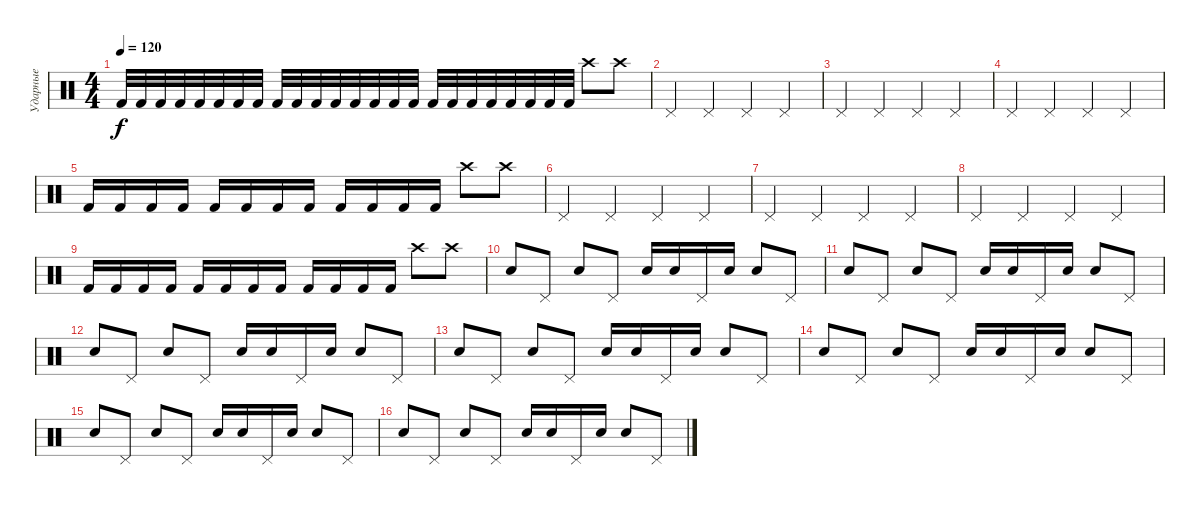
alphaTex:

\track ("Ударные" "Ударные") {instrument percussion}
\staff {score}
\articulation defaults
\ts (4 4)
\tempo 120
\clef neutral
\ks c "Kick (hit) 2".32{dy f} "Kick (hit) 2".32 "Kick (hit) 2".32 "Kick (hit) 2".32 "Kick (hit) 2".32 "Kick (hit) 2".32 "Kick (hit) 2".32 "Kick (hit) 2".32 "Kick (hit) 2".32 "Kick (hit) 2".32 "Kick (hit) 2".32 "Kick (hit) 2".32 "Kick (hit) 2".32 "Kick (hit) 2".32 "Kick (hit) 2".32 "Kick (hit) 2".32 "Kick (hit) 2".32 "Kick (hit) 2".32 "Kick (hit) 2".32 "Kick (hit) 2".32 "Kick (hit) 2".32 "Kick (hit) 2".32 "Kick (hit) 2".32 "Kick (hit) 2".32 "Crash high (hit)".8 "Crash high (hit)".8
|
"Pedal Hi-Hat (hit)".4 "Pedal Hi-Hat (hit)".4 "Pedal Hi-Hat (hit)".4 "Pedal Hi-Hat (hit)".4 |
"Pedal Hi-Hat (hit)".4 "Pedal Hi-Hat (hit)".4 "Pedal Hi-Hat (hit)".4 "Pedal Hi-Hat (hit)".4 |
"Pedal Hi-Hat (hit)".4 "Pedal Hi-Hat (hit)".4 "Pedal Hi-Hat (hit)".4 "Pedal Hi-Hat (hit)".4 |
"Kick (hit) 2".16 "Kick (hit) 2".16 "Kick (hit) 2".16 "Kick (hit) 2".16 "Kick (hit) 2".16 "Kick (hit) 2".16 "Kick (hit) 2".16 "Kick (hit) 2".16 "Kick (hit) 2".16 "Kick (hit) 2".16 "Kick (hit) 2".16 "Kick (hit) 2".16 "Crash high (hit)".8 "Crash high (hit)".8 |
"Pedal Hi-Hat (hit)".4 "Pedal Hi-Hat (hit)".4 "Pedal Hi-Hat (hit)".4 "Pedal Hi-Hat (hit)".4 |
"Pedal Hi-Hat (hit)".4 "Pedal Hi-Hat (hit)".4 "Pedal Hi-Hat (hit)".4 "Pedal Hi-Hat (hit)".4 |
"Pedal Hi-Hat (hit)".4 "Pedal Hi-Hat (hit)".4 "Pedal Hi-Hat (hit)".4 "Pedal Hi-Hat (hit)".4 |
"Kick (hit) 2".16 "Kick (hit) 2".16 "Kick (hit) 2".16 "Kick (hit) 2".16 "Kick (hit) 2".16 "Kick (hit) 2".16 "Kick (hit) 2".16 "Kick (hit) 2".16 "Kick (hit) 2".16 "Kick (hit) 2".16 "Kick (hit) 2".16 "Kick (hit) 2".16 "Crash high (hit)".8 "Crash high (hit)".8 |
"Snare (hit) 2".8 "Pedal Hi-Hat (hit)".8 "Snare (hit) 2".8 "Pedal Hi-Hat (hit)".8 "Snare (hit) 2".16 "Snare (hit) 2".16 "Pedal Hi-Hat (hit)".16 "Snare (hit) 2".16 "Snare (hit) 2".8 "Pedal Hi-Hat (hit)".8 |
"Snare (hit) 2".8 "Pedal Hi-Hat (hit)".8 "Snare (hit) 2".8 "Pedal Hi-Hat (hit)".8 "Snare (hit) 2".16 "Snare (hit) 2".16 "Pedal Hi-Hat (hit)".16 "Snare (hit) 2".16 "Snare (hit) 2".8 "Pedal Hi-Hat (hit)".8 |
"Snare (hit) 2".8 "Pedal Hi-Hat (hit)".8 "Snare (hit) 2".8 "Pedal Hi-Hat (hit)".8 "Snare (hit) 2".16 "Snare (hit) 2".16 "Pedal Hi-Hat (hit)".16 "Snare (hit) 2".16 "Snare (hit) 2".8 "Pedal Hi-Hat (hit)".8 |
"Snare (hit) 2".8 "Pedal Hi-Hat (hit)".8 "Snare (hit) 2".8 "Pedal Hi-Hat (hit)".8 "Snare (hit) 2".16 "Snare (hit) 2".16 "Pedal Hi-Hat (hit)".16 "Snare (hit) 2".16 "Snare (hit) 2".8 "Pedal Hi-Hat (hit)".8 |
"Snare (hit) 2".8 "Pedal Hi-Hat (hit)".8 "Snare (hit) 2".8 "Pedal Hi-Hat (hit)".8 "Snare (hit) 2".16 "Snare (hit) 2".16 "Pedal Hi-Hat (hit)".16 "Snare (hit) 2".16 "Snare (hit) 2".8 "Pedal Hi-Hat (hit)".8 |
"Snare (hit) 2".8 "Pedal Hi-Hat (hit)".8 "Snare (hit) 2".8 "Pedal Hi-Hat (hit)".8 "Snare (hit) 2".16 "Snare (hit) 2".16 "Pedal Hi-Hat (hit)".16 "Snare (hit) 2".16 "Snare (hit) 2".8 "Pedal Hi-Hat (hit)".8 |
"Snare (hit) 2".8 "Pedal Hi-Hat (hit)".8 "Snare (hit) 2".8 "Pedal Hi-Hat (hit)".8 "Snare (hit) 2".16 "Snare (hit) 2".16 "Pedal Hi-Hat (hit)".16 "Snare (hit) 2".16 "Snare (hit) 2".8 "Pedal Hi-Hat (hit)".8
